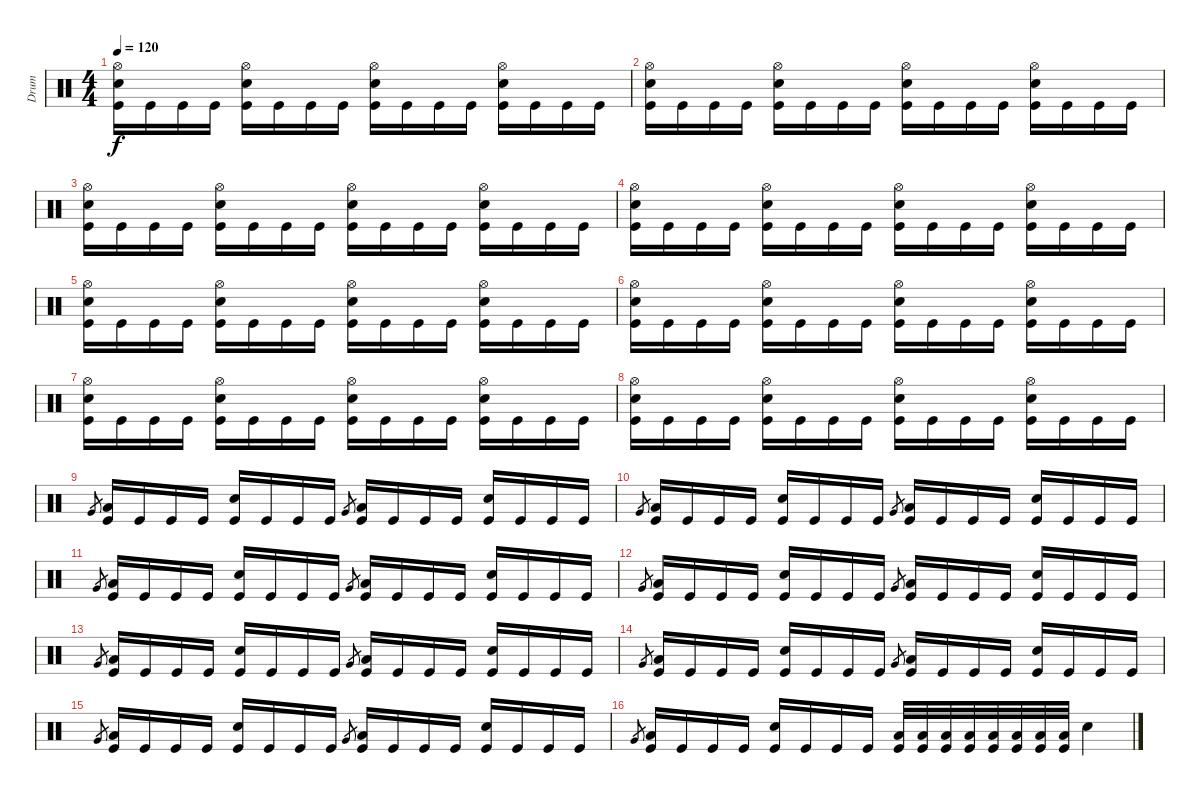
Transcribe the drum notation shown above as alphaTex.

\track ("Drum" "Drum") {instrument percussion}
\staff {score}
\articulation defaults
\ts (4 4)
\tempo 120
\clef neutral
\ks c
("Kick (hit)" "Electric Snare (hit)" "Hi-Hat (open)").16{dy f} "Kick (hit)".16 "Kick (hit)".16 "Kick (hit)".16 ("Kick (hit)" "Electric Snare (hit)" "Hi-Hat (open)").16 "Kick (hit)".16 "Kick (hit)".16 "Kick (hit)".16 ("Kick (hit)" "Electric Snare (hit)" "Hi-Hat (open)").16 "Kick (hit)".16 "Kick (hit)".16 "Kick (hit)".16 ("Kick (hit)" "Electric Snare (hit)" "Hi-Hat (open)").16 "Kick (hit)".16 "Kick (hit)".16 "Kick (hit)".16 |
("Kick (hit)" "Electric Snare (hit)" "Hi-Hat (open)").16 "Kick (hit)".16 "Kick (hit)".16 "Kick (hit)".16 ("Kick (hit)" "Electric Snare (hit)" "Hi-Hat (open)").16 "Kick (hit)".16 "Kick (hit)".16 "Kick (hit)".16 ("Kick (hit)" "Electric Snare (hit)" "Hi-Hat (open)").16 "Kick (hit)".16 "Kick (hit)".16 "Kick (hit)".16 ("Kick (hit)" "Electric Snare (hit)" "Hi-Hat (open)").16 "Kick (hit)".16 "Kick (hit)".16 "Kick (hit)".16 |
("Kick (hit)" "Electric Snare (hit)" "Hi-Hat (open)").16 "Kick (hit)".16 "Kick (hit)".16 "Kick (hit)".16 ("Kick (hit)" "Electric Snare (hit)" "Hi-Hat (open)").16 "Kick (hit)".16 "Kick (hit)".16 "Kick (hit)".16 ("Kick (hit)" "Electric Snare (hit)" "Hi-Hat (open)").16 "Kick (hit)".16 "Kick (hit)".16 "Kick (hit)".16 ("Kick (hit)" "Electric Snare (hit)" "Hi-Hat (open)").16 "Kick (hit)".16 "Kick (hit)".16 "Kick (hit)".16 |
("Kick (hit)" "Electric Snare (hit)" "Hi-Hat (open)").16 "Kick (hit)".16 "Kick (hit)".16 "Kick (hit)".16 ("Kick (hit)" "Electric Snare (hit)" "Hi-Hat (open)").16 "Kick (hit)".16 "Kick (hit)".16 "Kick (hit)".16 ("Kick (hit)" "Electric Snare (hit)" "Hi-Hat (open)").16 "Kick (hit)".16 "Kick (hit)".16 "Kick (hit)".16 ("Kick (hit)" "Electric Snare (hit)" "Hi-Hat (open)").16 "Kick (hit)".16 "Kick (hit)".16 "Kick (hit)".16 |
("Kick (hit)" "Electric Snare (hit)" "Hi-Hat (open)").16 "Kick (hit)".16 "Kick (hit)".16 "Kick (hit)".16 ("Kick (hit)" "Electric Snare (hit)" "Hi-Hat (open)").16 "Kick (hit)".16 "Kick (hit)".16 "Kick (hit)".16 ("Kick (hit)" "Electric Snare (hit)" "Hi-Hat (open)").16 "Kick (hit)".16 "Kick (hit)".16 "Kick (hit)".16 ("Kick (hit)" "Electric Snare (hit)" "Hi-Hat (open)").16 "Kick (hit)".16 "Kick (hit)".16 "Kick (hit)".16 |
("Kick (hit)" "Electric Snare (hit)" "Hi-Hat (open)").16 "Kick (hit)".16 "Kick (hit)".16 "Kick (hit)".16 ("Kick (hit)" "Electric Snare (hit)" "Hi-Hat (open)").16 "Kick (hit)".16 "Kick (hit)".16 "Kick (hit)".16 ("Kick (hit)" "Electric Snare (hit)" "Hi-Hat (open)").16 "Kick (hit)".16 "Kick (hit)".16 "Kick (hit)".16 ("Kick (hit)" "Electric Snare (hit)" "Hi-Hat (open)").16 "Kick (hit)".16 "Kick (hit)".16 "Kick (hit)".16 |
("Kick (hit)" "Electric Snare (hit)" "Hi-Hat (open)").16 "Kick (hit)".16 "Kick (hit)".16 "Kick (hit)".16 ("Kick (hit)" "Electric Snare (hit)" "Hi-Hat (open)").16 "Kick (hit)".16 "Kick (hit)".16 "Kick (hit)".16 ("Kick (hit)" "Electric Snare (hit)" "Hi-Hat (open)").16 "Kick (hit)".16 "Kick (hit)".16 "Kick (hit)".16 ("Kick (hit)" "Electric Snare (hit)" "Hi-Hat (open)").16 "Kick (hit)".16 "Kick (hit)".16 "Kick (hit)".16 |
("Kick (hit)" "Electric Snare (hit)" "Hi-Hat (open)").16 "Kick (hit)".16 "Kick (hit)".16 "Kick (hit)".16 ("Kick (hit)" "Electric Snare (hit)" "Hi-Hat (open)").16 "Kick (hit)".16 "Kick (hit)".16 "Kick (hit)".16 ("Kick (hit)" "Electric Snare (hit)" "Hi-Hat (open)").16 "Kick (hit)".16 "Kick (hit)".16 "Kick (hit)".16 ("Kick (hit)" "Electric Snare (hit)" "Hi-Hat (open)").16 "Kick (hit)".16 "Kick (hit)".16 "Kick (hit)".16 |
"Very Low Tom (hit)".8{gr} ("Kick (hit)" "Low Tom (hit)").16 "Kick (hit)".16 "Kick (hit)".16 "Kick (hit)".16 ("Kick (hit)" "Electric Snare (hit)").16 "Kick (hit)".16 "Kick (hit)".16 "Kick (hit)".16 "Very Low Tom (hit)".8{gr} ("Kick (hit)" "Low Tom (hit)").16 "Kick (hit)".16 "Kick (hit)".16 "Kick (hit)".16 ("Kick (hit)" "Electric Snare (hit)").16 "Kick (hit)".16 "Kick (hit)".16 "Kick (hit)".16 |
"Very Low Tom (hit)".8{gr} ("Kick (hit)" "Low Tom (hit)").16 "Kick (hit)".16 "Kick (hit)".16 "Kick (hit)".16 ("Kick (hit)" "Electric Snare (hit)").16 "Kick (hit)".16 "Kick (hit)".16 "Kick (hit)".16 "Very Low Tom (hit)".8{gr} ("Kick (hit)" "Low Tom (hit)").16 "Kick (hit)".16 "Kick (hit)".16 "Kick (hit)".16 ("Kick (hit)" "Electric Snare (hit)").16 "Kick (hit)".16 "Kick (hit)".16 "Kick (hit)".16 |
"Very Low Tom (hit)".8{gr} ("Kick (hit)" "Low Tom (hit)").16 "Kick (hit)".16 "Kick (hit)".16 "Kick (hit)".16 ("Kick (hit)" "Electric Snare (hit)").16 "Kick (hit)".16 "Kick (hit)".16 "Kick (hit)".16 "Very Low Tom (hit)".8{gr} ("Kick (hit)" "Low Tom (hit)").16 "Kick (hit)".16 "Kick (hit)".16 "Kick (hit)".16 ("Kick (hit)" "Electric Snare (hit)").16 "Kick (hit)".16 "Kick (hit)".16 "Kick (hit)".16 |
"Very Low Tom (hit)".8{gr} ("Kick (hit)" "Low Tom (hit)").16 "Kick (hit)".16 "Kick (hit)".16 "Kick (hit)".16 ("Kick (hit)" "Electric Snare (hit)").16 "Kick (hit)".16 "Kick (hit)".16 "Kick (hit)".16 "Very Low Tom (hit)".8{gr} ("Kick (hit)" "Low Tom (hit)").16 "Kick (hit)".16 "Kick (hit)".16 "Kick (hit)".16 ("Kick (hit)" "Electric Snare (hit)").16 "Kick (hit)".16 "Kick (hit)".16 "Kick (hit)".16 |
"Very Low Tom (hit)".8{gr} ("Kick (hit)" "Low Tom (hit)").16 "Kick (hit)".16 "Kick (hit)".16 "Kick (hit)".16 ("Kick (hit)" "Electric Snare (hit)").16 "Kick (hit)".16 "Kick (hit)".16 "Kick (hit)".16 "Very Low Tom (hit)".8{gr} ("Kick (hit)" "Low Tom (hit)").16 "Kick (hit)".16 "Kick (hit)".16 "Kick (hit)".16 ("Kick (hit)" "Electric Snare (hit)").16 "Kick (hit)".16 "Kick (hit)".16 "Kick (hit)".16 |
"Very Low Tom (hit)".8{gr} ("Kick (hit)" "Low Tom (hit)").16 "Kick (hit)".16 "Kick (hit)".16 "Kick (hit)".16 ("Kick (hit)" "Electric Snare (hit)").16 "Kick (hit)".16 "Kick (hit)".16 "Kick (hit)".16 "Very Low Tom (hit)".8{gr} ("Kick (hit)" "Low Tom (hit)").16 "Kick (hit)".16 "Kick (hit)".16 "Kick (hit)".16 ("Kick (hit)" "Electric Snare (hit)").16 "Kick (hit)".16 "Kick (hit)".16 "Kick (hit)".16 |
"Very Low Tom (hit)".8{gr} ("Kick (hit)" "Low Tom (hit)").16 "Kick (hit)".16 "Kick (hit)".16 "Kick (hit)".16 ("Kick (hit)" "Electric Snare (hit)").16 "Kick (hit)".16 "Kick (hit)".16 "Kick (hit)".16 "Very Low Tom (hit)".8{gr} ("Kick (hit)" "Low Tom (hit)").16 "Kick (hit)".16 "Kick (hit)".16 "Kick (hit)".16 ("Kick (hit)" "Electric Snare (hit)").16 "Kick (hit)".16 "Kick (hit)".16 "Kick (hit)".16 |
"Very Low Tom (hit)".8{gr} ("Kick (hit)" "Low Tom (hit)").16 "Kick (hit)".16 "Kick (hit)".16 "Kick (hit)".16 ("Kick (hit)" "Electric Snare (hit)").16 "Kick (hit)".16 "Kick (hit)".16 "Kick (hit)".16 ("Kick (hit)" "Low Tom (hit)").32 ("Kick (hit)" "Low Tom (hit)").32 ("Kick (hit)" "Low Tom (hit)").32 ("Kick (hit)" "Low Tom (hit)").32 ("Kick (hit)" "Low Tom (hit)").32 ("Kick (hit)" "Low Tom (hit)").32 ("Kick (hit)" "Low Tom (hit)").32 ("Kick (hit)" "Low Tom (hit)").32 "Electric Snare (hit)".4
